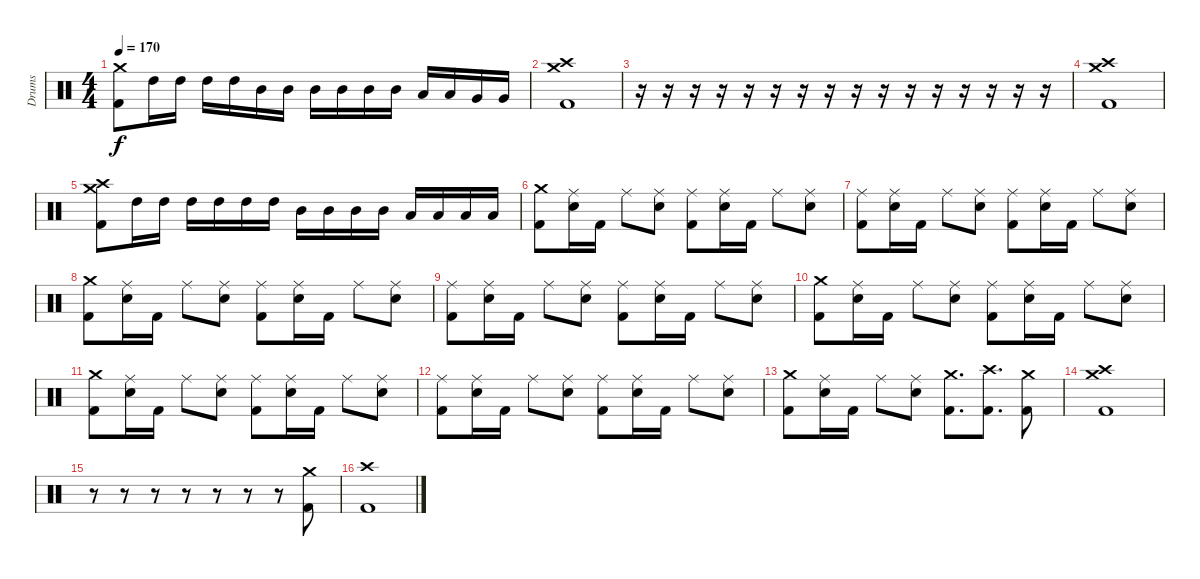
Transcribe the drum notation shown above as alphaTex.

\track ("Drums" "Drums") {instrument percussion}
\staff {score}
\articulation defaults
\ts (4 4)
\tempo 170
\clef neutral
\ks c
("Crash medium (hit)" "Kick (hit) 2").8{dy f} "High Tom (hit)".16 "High Tom (hit)".16 "High Tom (hit)".16 "High Tom (hit)".16 "Mid Tom (hit)".16 "Mid Tom (hit)".16 "Mid Tom (hit)".16 "Mid Tom (hit)".16 "Mid Tom (hit)".16 "Mid Tom (hit)".16 "Low Tom (hit)".16 "Low Tom (hit)".16 "Very Low Tom (hit)".16 "Very Low Tom (hit)".16 |
("Crash high (hit)" "Crash medium (hit)" "Kick (hit) 2").1 |
r.16 r.16 r.16 r.16 r.16 r.16 r.16 r.16 r.16 r.16 r.16 r.16 r.16 r.16 r.16 r.16 |
("Crash high (hit)" "Crash medium (hit)" "Kick (hit) 2").1 |
("Crash high (hit)" "Crash medium (hit)" "Kick (hit) 2").8 "High Tom (hit)".16 "High Tom (hit)".16 "High Tom (hit)".16 "High Tom (hit)".16 "High Tom (hit)".16 "High Tom (hit)".16 "Mid Tom (hit)".16 "Mid Tom (hit)".16 "Mid Tom (hit)".16 "Mid Tom (hit)".16 "Low Tom (hit)".16 "Low Tom (hit)".16 "Low Tom (hit)".16 "Low Tom (hit)".16 |
("Crash medium (hit)" "Kick (hit) 2").8 ("Ride (middle)" "Electric Snare (hit)").16 "Kick (hit) 2".16 "Ride (middle)".8 ("Ride (middle)" "Electric Snare (hit)").8 ("Ride (middle)" "Kick (hit) 2").8 ("Ride (middle)" "Electric Snare (hit)").16 "Kick (hit) 2".16 "Ride (middle)".8 ("Ride (middle)" "Electric Snare (hit)").8 |
("Ride (middle)" "Kick (hit) 2").8 ("Ride (middle)" "Electric Snare (hit)").16 "Kick (hit) 2".16 "Ride (middle)".8 ("Ride (middle)" "Electric Snare (hit)").8 ("Ride (middle)" "Kick (hit) 2").8 ("Ride (middle)" "Electric Snare (hit)").16 "Kick (hit) 2".16 "Ride (middle)".8 ("Ride (middle)" "Electric Snare (hit)").8 |
("Crash medium (hit)" "Kick (hit) 2").8 ("Ride (middle)" "Electric Snare (hit)").16 "Kick (hit) 2".16 "Ride (middle)".8 ("Ride (middle)" "Electric Snare (hit)").8 ("Ride (middle)" "Kick (hit) 2").8 ("Ride (middle)" "Electric Snare (hit)").16 "Kick (hit) 2".16 "Ride (middle)".8 ("Ride (middle)" "Electric Snare (hit)").8 |
("Ride (middle)" "Kick (hit) 2").8 ("Ride (middle)" "Electric Snare (hit)").16 "Kick (hit) 2".16 "Ride (middle)".8 ("Ride (middle)" "Electric Snare (hit)").8 ("Ride (middle)" "Kick (hit) 2").8 ("Ride (middle)" "Electric Snare (hit)").16 "Kick (hit) 2".16 "Ride (middle)".8 ("Ride (middle)" "Electric Snare (hit)").8 |
("Crash medium (hit)" "Kick (hit) 2").8 ("Ride (middle)" "Electric Snare (hit)").16 "Kick (hit) 2".16 "Ride (middle)".8 ("Ride (middle)" "Electric Snare (hit)").8 ("Ride (middle)" "Kick (hit) 2").8 ("Ride (middle)" "Electric Snare (hit)").16 "Kick (hit) 2".16 "Ride (middle)".8 ("Ride (middle)" "Electric Snare (hit)").8 |
("Crash medium (hit)" "Kick (hit) 2").8 ("Ride (middle)" "Electric Snare (hit)").16 "Kick (hit) 2".16 "Ride (middle)".8 ("Ride (middle)" "Electric Snare (hit)").8 ("Ride (middle)" "Kick (hit) 2").8 ("Ride (middle)" "Electric Snare (hit)").16 "Kick (hit) 2".16 "Ride (middle)".8 ("Ride (middle)" "Electric Snare (hit)").8 |
("Ride (middle)" "Kick (hit) 2").8 ("Ride (middle)" "Electric Snare (hit)").16 "Kick (hit) 2".16 "Ride (middle)".8 ("Ride (middle)" "Electric Snare (hit)").8 ("Ride (middle)" "Kick (hit) 2").8 ("Ride (middle)" "Electric Snare (hit)").16 "Kick (hit) 2".16 "Ride (middle)".8 ("Ride (middle)" "Electric Snare (hit)").8 |
("Crash medium (hit)" "Kick (hit) 2").8 ("Ride (middle)" "Electric Snare (hit)").16 "Kick (hit) 2".16 "Ride (middle)".8 ("Ride (middle)" "Electric Snare (hit)").8 ("Crash medium (hit)" "Kick (hit) 2").8{d} ("Crash high (hit)" "Kick (hit) 2").8{d} ("Crash medium (hit)" "Kick (hit) 2").8 |
("Crash high (hit)" "Crash medium (hit)" "Kick (hit) 2").1 |
r.8 r.8 r.8 r.8 r.8 r.8 r.8 ("Crash medium (hit)" "Kick (hit) 2").8 |
("Crash high (hit)" "Kick (hit) 2").1
